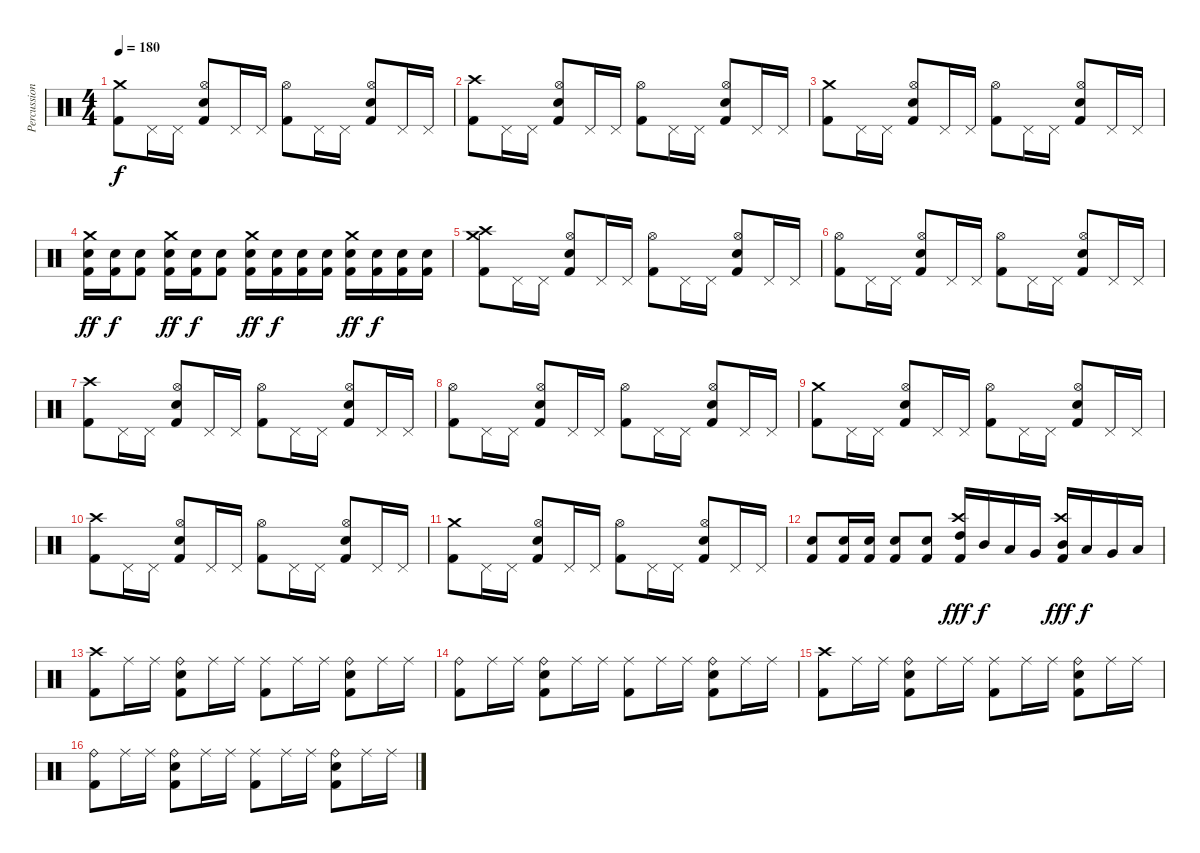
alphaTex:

\track ("Percussion" "Percussion") {instrument percussion}
\staff {score}
\articulation defaults
\ts (4 4)
\tempo 180
\clef neutral
\ks c
("Crash medium (hit)" "Kick (hit) 2").8{dy f} "Pedal Hi-Hat (hit)".16 "Pedal Hi-Hat (hit)".16 ("Hi-Hat (open)" "Electric Snare (hit)" "Kick (hit) 2").8 "Pedal Hi-Hat (hit)".16 "Pedal Hi-Hat (hit)".16 ("Hi-Hat (open)" "Kick (hit) 2").8 "Pedal Hi-Hat (hit)".16 "Pedal Hi-Hat (hit)".16 ("Hi-Hat (open)" "Electric Snare (hit)" "Kick (hit) 2").8 "Pedal Hi-Hat (hit)".16 "Pedal Hi-Hat (hit)".16 |
("Crash high (hit)" "Kick (hit) 2").8 "Pedal Hi-Hat (hit)".16 "Pedal Hi-Hat (hit)".16 ("Hi-Hat (open)" "Electric Snare (hit)" "Kick (hit) 2").8 "Pedal Hi-Hat (hit)".16 "Pedal Hi-Hat (hit)".16 ("Hi-Hat (open)" "Kick (hit) 2").8 "Pedal Hi-Hat (hit)".16 "Pedal Hi-Hat (hit)".16 ("Hi-Hat (open)" "Electric Snare (hit)" "Kick (hit) 2").8 "Pedal Hi-Hat (hit)".16 "Pedal Hi-Hat (hit)".16 |
("Crash medium (hit)" "Kick (hit) 2").8 "Pedal Hi-Hat (hit)".16 "Pedal Hi-Hat (hit)".16 ("Hi-Hat (open)" "Electric Snare (hit)" "Kick (hit) 2").8 "Pedal Hi-Hat (hit)".16 "Pedal Hi-Hat (hit)".16 ("Hi-Hat (open)" "Kick (hit) 2").8 "Pedal Hi-Hat (hit)".16 "Pedal Hi-Hat (hit)".16 ("Hi-Hat (open)" "Electric Snare (hit)" "Kick (hit) 2").8 "Pedal Hi-Hat (hit)".16 "Pedal Hi-Hat (hit)".16 |
("Crash medium (hit)" "Electric Snare (hit)" "Kick (hit) 2").16{dy ff} ("Electric Snare (hit)" "Kick (hit) 2").16{dy f} ("Electric Snare (hit)" "Kick (hit) 2").8 ("Crash medium (hit)" "Electric Snare (hit)" "Kick (hit) 2").16{dy ff} ("Electric Snare (hit)" "Kick (hit) 2").16{dy f} ("Electric Snare (hit)" "Kick (hit) 2").8 ("Crash medium (hit)" "Electric Snare (hit)" "Kick (hit) 2").16{dy ff} ("Electric Snare (hit)" "Kick (hit) 2").16{dy f} ("Electric Snare (hit)" "Kick (hit) 2").16 ("Electric Snare (hit)" "Kick (hit) 2").16 ("Crash medium (hit)" "Electric Snare (hit)" "Kick (hit) 2").16{dy ff} ("Electric Snare (hit)" "Kick (hit) 2").16{dy f} ("Electric Snare (hit)" "Kick (hit) 2").16 ("Electric Snare (hit)" "Kick (hit) 2").16 |
("Crash high (hit)" "Crash medium (hit)" "Kick (hit) 2").8 "Pedal Hi-Hat (hit)".16 "Pedal Hi-Hat (hit)".16 ("Hi-Hat (open)" "Electric Snare (hit)" "Kick (hit) 2").8 "Pedal Hi-Hat (hit)".16 "Pedal Hi-Hat (hit)".16 ("Hi-Hat (open)" "Kick (hit) 2").8 "Pedal Hi-Hat (hit)".16 "Pedal Hi-Hat (hit)".16 ("Hi-Hat (open)" "Electric Snare (hit)" "Kick (hit) 2").8 "Pedal Hi-Hat (hit)".16 "Pedal Hi-Hat (hit)".16 |
("Hi-Hat (open)" "Kick (hit) 2").8 "Pedal Hi-Hat (hit)".16 "Pedal Hi-Hat (hit)".16 ("Hi-Hat (open)" "Electric Snare (hit)" "Kick (hit) 2").8 "Pedal Hi-Hat (hit)".16 "Pedal Hi-Hat (hit)".16 ("Hi-Hat (open)" "Kick (hit) 2").8 "Pedal Hi-Hat (hit)".16 "Pedal Hi-Hat (hit)".16 ("Hi-Hat (open)" "Electric Snare (hit)" "Kick (hit) 2").8 "Pedal Hi-Hat (hit)".16 "Pedal Hi-Hat (hit)".16 |
("Crash high (hit)" "Kick (hit) 2").8 "Pedal Hi-Hat (hit)".16 "Pedal Hi-Hat (hit)".16 ("Hi-Hat (open)" "Electric Snare (hit)" "Kick (hit) 2").8 "Pedal Hi-Hat (hit)".16 "Pedal Hi-Hat (hit)".16 ("Hi-Hat (open)" "Kick (hit) 2").8 "Pedal Hi-Hat (hit)".16 "Pedal Hi-Hat (hit)".16 ("Hi-Hat (open)" "Electric Snare (hit)" "Kick (hit) 2").8 "Pedal Hi-Hat (hit)".16 "Pedal Hi-Hat (hit)".16 |
("Hi-Hat (open)" "Kick (hit) 2").8 "Pedal Hi-Hat (hit)".16 "Pedal Hi-Hat (hit)".16 ("Hi-Hat (open)" "Electric Snare (hit)" "Kick (hit) 2").8 "Pedal Hi-Hat (hit)".16 "Pedal Hi-Hat (hit)".16 ("Hi-Hat (open)" "Kick (hit) 2").8 "Pedal Hi-Hat (hit)".16 "Pedal Hi-Hat (hit)".16 ("Hi-Hat (open)" "Electric Snare (hit)" "Kick (hit) 2").8 "Pedal Hi-Hat (hit)".16 "Pedal Hi-Hat (hit)".16 |
("Crash medium (hit)" "Kick (hit) 2").8 "Pedal Hi-Hat (hit)".16 "Pedal Hi-Hat (hit)".16 ("Hi-Hat (open)" "Electric Snare (hit)" "Kick (hit) 2").8 "Pedal Hi-Hat (hit)".16 "Pedal Hi-Hat (hit)".16 ("Hi-Hat (open)" "Kick (hit) 2").8 "Pedal Hi-Hat (hit)".16 "Pedal Hi-Hat (hit)".16 ("Hi-Hat (open)" "Electric Snare (hit)" "Kick (hit) 2").8 "Pedal Hi-Hat (hit)".16 "Pedal Hi-Hat (hit)".16 |
("Crash high (hit)" "Kick (hit) 2").8 "Pedal Hi-Hat (hit)".16 "Pedal Hi-Hat (hit)".16 ("Hi-Hat (open)" "Electric Snare (hit)" "Kick (hit) 2").8 "Pedal Hi-Hat (hit)".16 "Pedal Hi-Hat (hit)".16 ("Hi-Hat (open)" "Kick (hit) 2").8 "Pedal Hi-Hat (hit)".16 "Pedal Hi-Hat (hit)".16 ("Hi-Hat (open)" "Electric Snare (hit)" "Kick (hit) 2").8 "Pedal Hi-Hat (hit)".16 "Pedal Hi-Hat (hit)".16 |
("Crash medium (hit)" "Kick (hit) 2").8 "Pedal Hi-Hat (hit)".16 "Pedal Hi-Hat (hit)".16 ("Hi-Hat (open)" "Electric Snare (hit)" "Kick (hit) 2").8 "Pedal Hi-Hat (hit)".16 "Pedal Hi-Hat (hit)".16 ("Hi-Hat (open)" "Kick (hit) 2").8 "Pedal Hi-Hat (hit)".16 "Pedal Hi-Hat (hit)".16 ("Hi-Hat (open)" "Electric Snare (hit)" "Kick (hit) 2").8 "Pedal Hi-Hat (hit)".16 "Pedal Hi-Hat (hit)".16 |
("Electric Snare (hit)" "Kick (hit) 2").8 ("Electric Snare (hit)" "Kick (hit) 2").16 ("Electric Snare (hit)" "Kick (hit) 2").16 ("Electric Snare (hit)" "Kick (hit) 2").8 ("Electric Snare (hit)" "Kick (hit) 2").8 ("Crash high (hit)" "High Tom (hit)" "Kick (hit) 2").16{dy fff} "Mid Tom (hit)".16{dy f} "Low Tom (hit)".16 "Very Low Tom (hit)".16 ("Crash high (hit)" "Mid Tom (hit)" "Kick (hit) 2").16{dy fff} "Low Tom (hit)".16{dy f} "Very Low Tom (hit)".16 "Low Floor Tom (hit)".16 |
("Crash high (hit)" "Kick (hit) 2").8 "Ride (middle)".16 "Ride (middle)".16 ("Ride (bell)" "Electric Snare (hit)" "Kick (hit) 2").8 "Ride (middle)".16 "Ride (middle)".16 ("Ride (middle)" "Kick (hit) 2").8 "Ride (middle)".16 "Ride (middle)".16 ("Ride (bell)" "Electric Snare (hit)" "Kick (hit) 2").8 "Ride (middle)".16 "Ride (middle)".16 |
("Ride (bell)" "Kick (hit) 2").8 "Ride (middle)".16 "Ride (middle)".16 ("Ride (bell)" "Electric Snare (hit)" "Kick (hit) 2").8 "Ride (middle)".16 "Ride (middle)".16 ("Ride (middle)" "Kick (hit) 2").8 "Ride (middle)".16 "Ride (middle)".16 ("Ride (bell)" "Electric Snare (hit)" "Kick (hit) 2").8 "Ride (middle)".16 "Ride (middle)".16 |
("Crash high (hit)" "Kick (hit) 2").8 "Ride (middle)".16 "Ride (middle)".16 ("Ride (bell)" "Electric Snare (hit)" "Kick (hit) 2").8 "Ride (middle)".16 "Ride (middle)".16 ("Ride (middle)" "Kick (hit) 2").8 "Ride (middle)".16 "Ride (middle)".16 ("Ride (bell)" "Electric Snare (hit)" "Kick (hit) 2").8 "Ride (middle)".16 "Ride (middle)".16 |
("Ride (bell)" "Kick (hit) 2").8 "Ride (middle)".16 "Ride (middle)".16 ("Ride (bell)" "Electric Snare (hit)" "Kick (hit) 2").8 "Ride (middle)".16 "Ride (middle)".16 ("Ride (middle)" "Kick (hit) 2").8 "Ride (middle)".16 "Ride (middle)".16 ("Ride (bell)" "Electric Snare (hit)" "Kick (hit) 2").8 "Ride (middle)".16 "Ride (middle)".16
